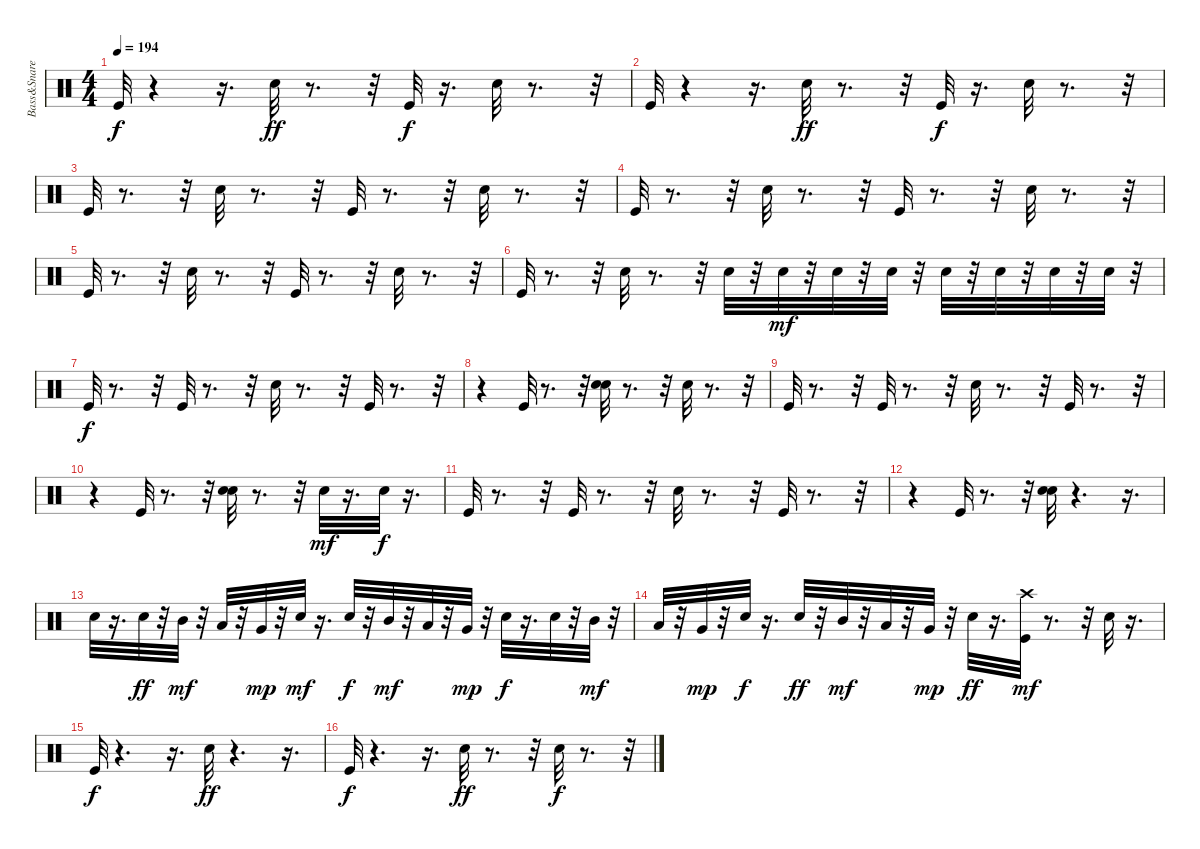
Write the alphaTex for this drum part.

\track ("Bass&Snare" "Bass&Snare") {instrument percussion}
\staff {score}
\articulation defaults
\ts (4 4)
\tempo 194
\clef neutral
\ks c "Kick (hit)".32{dy f}
r.4 r.16{d} "Snare (hit) 2".32{dy ff} r.8{d} r.32 "Kick (hit)".32{dy f} r.16{d} "Snare (hit) 2".32 r.8{d} r.32 |
"Kick (hit)".32 r.4 r.16{d} "Snare (hit) 2".32{dy ff} r.8{d} r.32 "Kick (hit)".32{dy f} r.16{d} "Snare (hit) 2".32 r.8{d} r.32 |
"Kick (hit)".32 r.8{d} r.32 "Snare (hit) 2".32 r.8{d} r.32 "Kick (hit)".32 r.8{d} r.32 "Snare (hit) 2".32 r.8{d} r.32 |
"Kick (hit)".32 r.8{d} r.32 "Snare (hit) 2".32 r.8{d} r.32 "Kick (hit)".32 r.8{d} r.32 "Snare (hit) 2".32 r.8{d} r.32 |
"Kick (hit)".32 r.8{d} r.32 "Snare (hit) 2".32 r.8{d} r.32 "Kick (hit)".32 r.8{d} r.32 "Snare (hit) 2".32 r.8{d} r.32 |
"Kick (hit)".32 r.8{d} r.32 "Snare (hit) 2".32 r.8{d} r.32 "Snare (hit) 2".32 r.32 "Snare (hit) 2".32{dy mf} r.32 "Snare (hit) 2".32 r.32 "Snare (hit) 2".32 r.32 "Snare (hit) 2".32 r.32 "Snare (hit) 2".32 r.32 "Snare (hit) 2".32 r.32 "Snare (hit) 2".32 r.32 |
"Kick (hit)".32{dy f} r.8{d} r.32 "Kick (hit)".32 r.8{d} r.32 "Snare (hit) 2".32 r.8{d} r.32 "Kick (hit)".32 r.8{d} r.32 |
r.4 "Kick (hit)".32 r.8{d} r.32 ("Snare (hit) 2" "Snare (hit)").32 r.8{d} r.32 "Snare (hit) 2".32 r.8{d} r.32 |
"Kick (hit)".32 r.8{d} r.32 "Kick (hit)".32 r.8{d} r.32 "Snare (hit) 2".32 r.8{d} r.32 "Kick (hit)".32 r.8{d} r.32 |
r.4 "Kick (hit)".32 r.8{d} r.32 ("Snare (hit) 2" "Snare (hit)").32 r.8{d} r.32 "Snare (hit) 2".32{dy mf} r.16{d} "Snare (hit) 2".32{dy f} r.16{d} |
"Kick (hit)".32 r.8{d} r.32 "Kick (hit)".32 r.8{d} r.32 "Snare (hit) 2".32 r.8{d} r.32 "Kick (hit)".32 r.8{d} r.32 |
r.4 "Kick (hit)".32 r.8{d} r.32 ("Snare (hit) 2" "Snare (hit)").32 r.4{d} r.16{d} |
"Snare (hit) 2".32 r.16{d} "Snare (hit) 2".32{dy ff} r.32 "Mid Tom (hit)".32{dy mf} r.32 "Low Tom (hit)".32 r.32 "Very Low Tom (hit)".32{dy mp} r.32 "Snare (hit) 2".32{dy mf} r.16{d} "Snare (hit) 2".32{dy f} r.32 "Mid Tom (hit)".32{dy mf} r.32 "Low Tom (hit)".32 r.32 "Very Low Tom (hit)".32{dy mp} r.32 "Snare (hit) 2".32{dy f} r.16{d} "Snare (hit) 2".32 r.32 "Mid Tom (hit)".32{dy mf} r.32 |
"Low Tom (hit)".32 r.32 "Very Low Tom (hit)".32{dy mp} r.32 "Snare (hit) 2".32{dy f} r.16{d} "Snare (hit) 2".32{dy ff} r.32 "Mid Tom (hit)".32{dy mf} r.32 "Low Tom (hit)".32 r.32 "Very Low Tom (hit)".32{dy mp} r.32 "Snare (hit) 2".32{dy ff} r.16{d} ("Kick (hit)" "Crash high (hit)").32{dy mf} r.8{d} r.32 "Snare (hit) 2".32 r.16{d} |
"Kick (hit)".32{dy f} r.4{d} r.16{d} "Snare (hit) 2".32{dy ff} r.4{d} r.16{d} |
"Kick (hit)".32{dy f} r.4{d} r.16{d} "Snare (hit) 2".32{dy ff} r.8{d} r.32 "Snare (hit) 2".32{dy f} r.8{d} r.32
